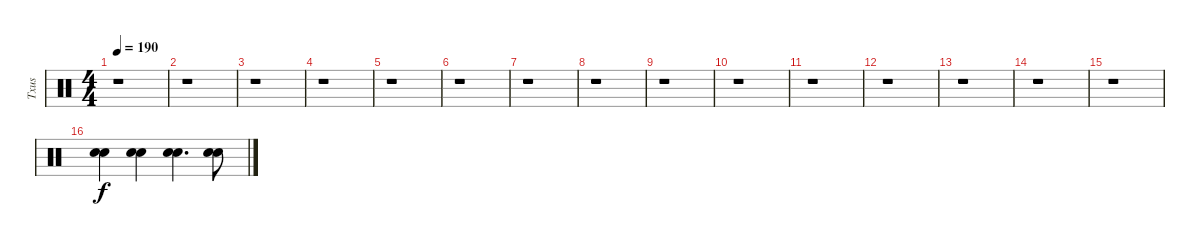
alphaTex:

\track ("Txus" "Txus") {instrument percussion}
\staff
\articulation defaults
\ts (4 4)
\tempo 190
\clef neutral
\ks c
r.1{dy f} |
r.1 |
r.1 |
r.1 |
r.1 |
r.1 |
r.1 |
r.1 |
r.1 |
r.1 |
r.1 |
r.1 |
r.1 |
r.1 |
r.1 |
("Snare (hit) 2" "Snare (hit) 2").4 ("Snare (hit) 2" "Snare (hit) 2").4 ("Snare (hit) 2" "Snare (hit) 2").4{d} ("Snare (hit) 2" "Snare (hit) 2").8
